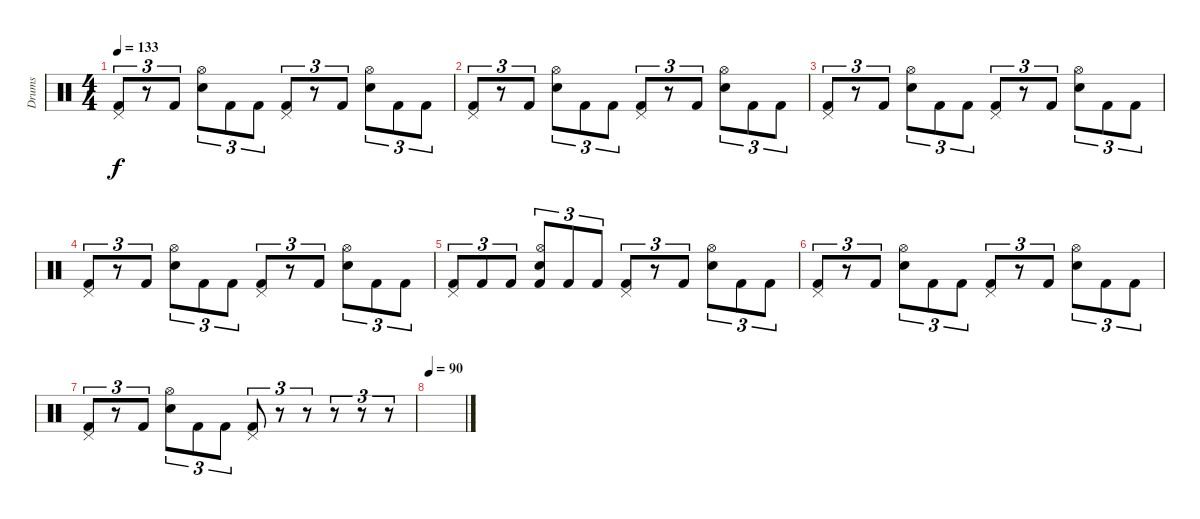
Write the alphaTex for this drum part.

\track ("Drums" "Drums") {instrument percussion}
\staff {score}
\articulation defaults
\ts (4 4)
\tempo 133
\clef neutral
\ks c
("Pedal Hi-Hat (hit)" "Kick (hit) 2").8{tu (3 2) dy f} r.8{tu (3 2)} "Kick (hit) 2".8{tu (3 2)} ("Hi-Hat (open)" "Snare (hit) 2").8{tu (3 2)} "Kick (hit) 2".8{tu (3 2)} "Kick (hit) 2".8{tu (3 2)} ("Pedal Hi-Hat (hit)" "Kick (hit) 2").8{tu (3 2)} r.8{tu (3 2)} "Kick (hit) 2".8{tu (3 2)} ("Hi-Hat (open)" "Snare (hit) 2").8{tu (3 2)} "Kick (hit) 2".8{tu (3 2)} "Kick (hit) 2".8{tu (3 2)} |
("Pedal Hi-Hat (hit)" "Kick (hit) 2").8{tu (3 2)} r.8{tu (3 2)} "Kick (hit) 2".8{tu (3 2)} ("Hi-Hat (open)" "Snare (hit) 2").8{tu (3 2)} "Kick (hit) 2".8{tu (3 2)} "Kick (hit) 2".8{tu (3 2)} ("Pedal Hi-Hat (hit)" "Kick (hit) 2").8{tu (3 2)} r.8{tu (3 2)} "Kick (hit) 2".8{tu (3 2)} ("Hi-Hat (open)" "Snare (hit) 2").8{tu (3 2)} "Kick (hit) 2".8{tu (3 2)} "Kick (hit) 2".8{tu (3 2)} |
("Pedal Hi-Hat (hit)" "Kick (hit) 2").8{tu (3 2)} r.8{tu (3 2)} "Kick (hit) 2".8{tu (3 2)} ("Hi-Hat (open)" "Snare (hit) 2").8{tu (3 2)} "Kick (hit) 2".8{tu (3 2)} "Kick (hit) 2".8{tu (3 2)} ("Pedal Hi-Hat (hit)" "Kick (hit) 2").8{tu (3 2)} r.8{tu (3 2)} "Kick (hit) 2".8{tu (3 2)} ("Hi-Hat (open)" "Snare (hit) 2").8{tu (3 2)} "Kick (hit) 2".8{tu (3 2)} "Kick (hit) 2".8{tu (3 2)} |
("Pedal Hi-Hat (hit)" "Kick (hit) 2").8{tu (3 2)} r.8{tu (3 2)} "Kick (hit) 2".8{tu (3 2)} ("Hi-Hat (open)" "Snare (hit) 2").8{tu (3 2)} "Kick (hit) 2".8{tu (3 2)} "Kick (hit) 2".8{tu (3 2)} ("Pedal Hi-Hat (hit)" "Kick (hit) 2").8{tu (3 2)} r.8{tu (3 2)} "Kick (hit) 2".8{tu (3 2)} ("Hi-Hat (open)" "Snare (hit) 2").8{tu (3 2)} "Kick (hit) 2".8{tu (3 2)} "Kick (hit) 2".8{tu (3 2)} |
("Pedal Hi-Hat (hit)" "Kick (hit) 2").8{tu (3 2)} "Kick (hit) 2".8{tu (3 2)} "Kick (hit) 2".8{tu (3 2)} ("Hi-Hat (open)" "Snare (hit) 2" "Kick (hit) 2").8{tu (3 2)} "Kick (hit) 2".8{tu (3 2)} "Kick (hit) 2".8{tu (3 2)} ("Pedal Hi-Hat (hit)" "Kick (hit) 2").8{tu (3 2)} r.8{tu (3 2)} "Kick (hit) 2".8{tu (3 2)} ("Hi-Hat (open)" "Snare (hit) 2").8{tu (3 2)} "Kick (hit) 2".8{tu (3 2)} "Kick (hit) 2".8{tu (3 2)} |
("Pedal Hi-Hat (hit)" "Kick (hit) 2").8{tu (3 2)} r.8{tu (3 2)} "Kick (hit) 2".8{tu (3 2)} ("Hi-Hat (open)" "Snare (hit) 2").8{tu (3 2)} "Kick (hit) 2".8{tu (3 2)} "Kick (hit) 2".8{tu (3 2)} ("Pedal Hi-Hat (hit)" "Kick (hit) 2").8{tu (3 2)} r.8{tu (3 2)} "Kick (hit) 2".8{tu (3 2)} ("Hi-Hat (open)" "Snare (hit) 2").8{tu (3 2)} "Kick (hit) 2".8{tu (3 2)} "Kick (hit) 2".8{tu (3 2)} |
("Pedal Hi-Hat (hit)" "Kick (hit) 2").8{tu (3 2)} r.8{tu (3 2)} "Kick (hit) 2".8{tu (3 2)} ("Hi-Hat (open)" "Snare (hit) 2").8{tu (3 2)} "Kick (hit) 2".8{tu (3 2)} "Kick (hit) 2".8{tu (3 2)} ("Pedal Hi-Hat (hit)" "Kick (hit) 2").8{tu (3 2)} r.8{tu (3 2)} r.8{tu (3 2)} r.8{tu (3 2)} r.8{tu (3 2)} r.8{tu (3 2)} |
\tempo 90
